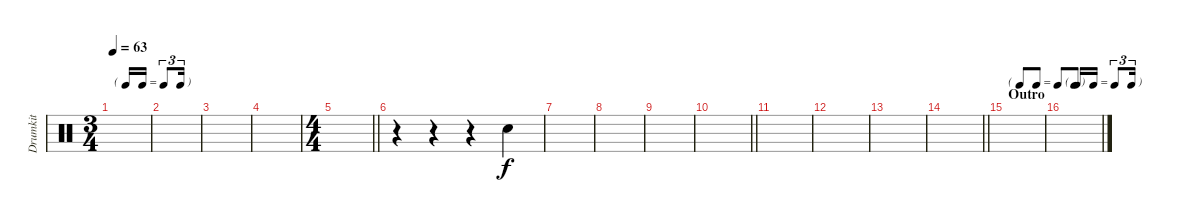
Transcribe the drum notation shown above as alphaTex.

\track ("Drumkit" "Drumkit") {instrument percussion}
\staff {score}
\articulation defaults
\ts (3 4)
\tf triplet16th
\tempo 63
\clef neutral
\ks c
|
|
|
|
\ts (4 4)
\barLineRight lightlight
|
r.4 r.4 r.4 "Snare (hit) 2".4 |
|
|
|
\barLineRight lightlight
|
|
|
|
\barLineRight lightlight
|
\tf none
\section ("" "Outro")
|
\tf triplet16th
